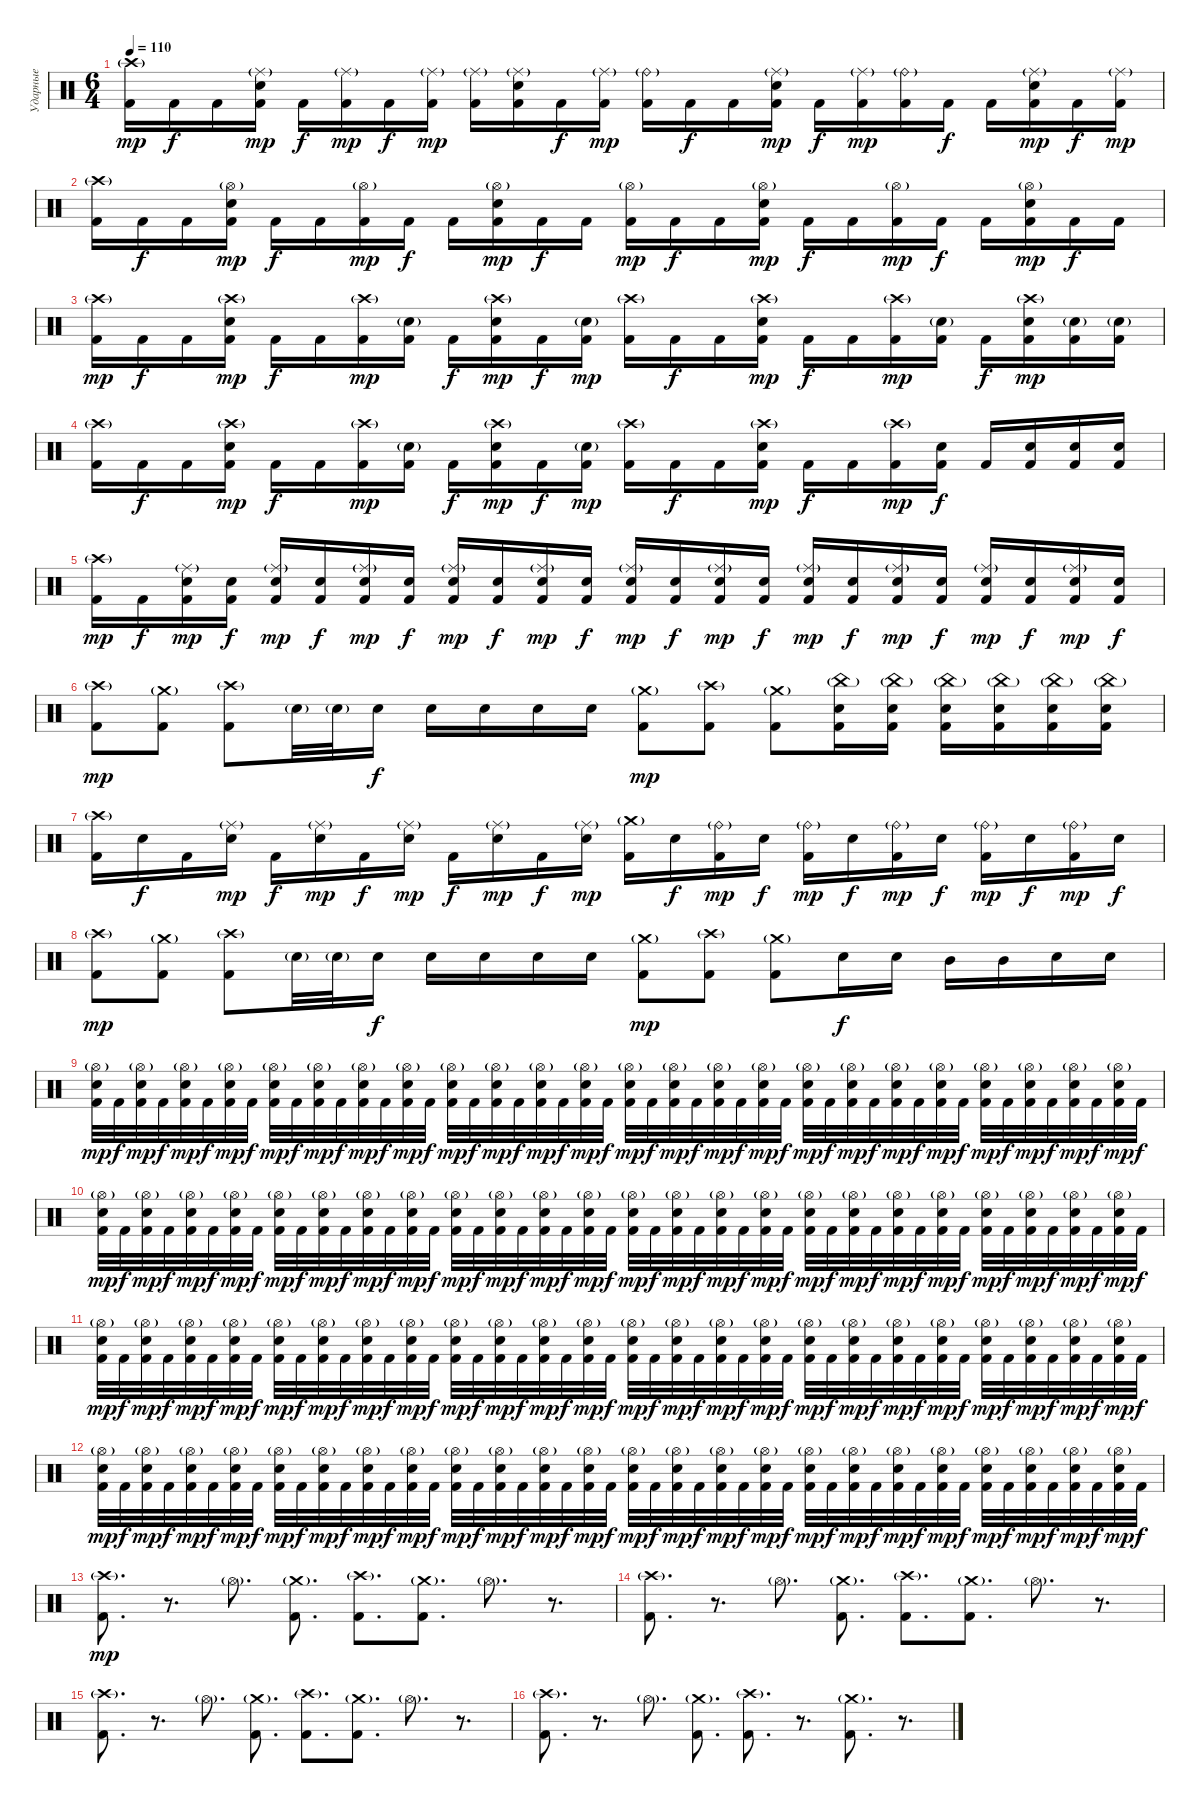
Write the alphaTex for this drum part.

\track ("Ударные" "Ударные") {instrument percussion}
\staff {score}
\articulation defaults
\ts (6 4)
\tempo 110
\clef neutral
\ks c
("Crash high (hit)"{g} "Kick (hit) 2").16{dy mp} "Kick (hit) 2".16{dy f} "Kick (hit) 2".16 ("Ride (middle)"{g} "Electric Snare (hit)" "Kick (hit) 2").16{dy mp} "Kick (hit) 2".16{dy f} ("Ride (middle)"{g} "Kick (hit) 2").16{dy mp} "Kick (hit) 2".16{dy f} ("Ride (middle)"{g} "Kick (hit) 2").16{dy mp} ("Ride (middle)"{g} "Kick (hit) 2").16 ("Ride (middle)"{g} "Electric Snare (hit)" "Kick (hit) 2").16 "Kick (hit) 2".16{dy f} ("Ride (middle)"{g} "Kick (hit) 2").16{dy mp} ("Ride (bell)"{g} "Kick (hit) 2").16 "Kick (hit) 2".16{dy f} "Kick (hit) 2".16 ("Ride (middle)"{g} "Electric Snare (hit)" "Kick (hit) 2").16{dy mp} "Kick (hit) 2".16{dy f} ("Ride (middle)"{g} "Kick (hit) 2").16{dy mp} ("Ride (bell)"{g} "Kick (hit) 2").16 "Kick (hit) 2".16{dy f} "Kick (hit) 2".16 ("Ride (middle)"{g} "Electric Snare (hit)" "Kick (hit) 2").16{dy mp} "Kick (hit) 2".16{dy f} ("Ride (middle)"{g} "Kick (hit) 2").16{dy mp} |
("Crash high (hit)"{g} "Kick (hit) 2").16 "Kick (hit) 2".16{dy f} "Kick (hit) 2".16 ("Hi-Hat (open)"{g} "Electric Snare (hit)" "Kick (hit) 2").16{dy mp} "Kick (hit) 2".16{dy f} "Kick (hit) 2".16 ("Hi-Hat (open)"{g} "Kick (hit) 2").16{dy mp} "Kick (hit) 2".16{dy f} "Kick (hit) 2".16 ("Hi-Hat (open)"{g} "Electric Snare (hit)" "Kick (hit) 2").16{dy mp} "Kick (hit) 2".16{dy f} "Kick (hit) 2".16 ("Hi-Hat (open)"{g} "Kick (hit) 2").16{dy mp} "Kick (hit) 2".16{dy f} "Kick (hit) 2".16 ("Hi-Hat (open)"{g} "Electric Snare (hit)" "Kick (hit) 2").16{dy mp} "Kick (hit) 2".16{dy f} "Kick (hit) 2".16 ("Hi-Hat (open)"{g} "Kick (hit) 2").16{dy mp} "Kick (hit) 2".16{dy f} "Kick (hit) 2".16 ("Hi-Hat (open)"{g} "Electric Snare (hit)" "Kick (hit) 2").16{dy mp} "Kick (hit) 2".16{dy f} "Kick (hit) 2".16 |
("Crash high (hit)"{g} "Kick (hit) 2").16{dy mp} "Kick (hit) 2".16{dy f} "Kick (hit) 2".16 ("Crash high (hit)"{g} "Electric Snare (hit)" "Kick (hit) 2").16{dy mp} "Kick (hit) 2".16{dy f} "Kick (hit) 2".16 ("Crash high (hit)"{g} "Kick (hit) 2").16{dy mp} ("Electric Snare (hit)"{g} "Kick (hit) 2").16 "Kick (hit) 2".16{dy f} ("Crash high (hit)"{g} "Electric Snare (hit)" "Kick (hit) 2").16{dy mp} "Kick (hit) 2".16{dy f} ("Electric Snare (hit)"{g} "Kick (hit) 2").16{dy mp} ("Crash high (hit)"{g} "Kick (hit) 2").16 "Kick (hit) 2".16{dy f} "Kick (hit) 2".16 ("Crash high (hit)"{g} "Electric Snare (hit)" "Kick (hit) 2").16{dy mp} "Kick (hit) 2".16{dy f} "Kick (hit) 2".16 ("Crash high (hit)"{g} "Kick (hit) 2").16{dy mp} ("Electric Snare (hit)"{g} "Kick (hit) 2").16 "Kick (hit) 2".16{dy f} ("Crash high (hit)"{g} "Electric Snare (hit)" "Kick (hit) 2").16{dy mp} ("Electric Snare (hit)"{g} "Kick (hit) 2").16 ("Electric Snare (hit)"{g} "Kick (hit) 2").16 |
("Crash high (hit)"{g} "Kick (hit) 2").16 "Kick (hit) 2".16{dy f} "Kick (hit) 2".16 ("Crash high (hit)"{g} "Electric Snare (hit)" "Kick (hit) 2").16{dy mp} "Kick (hit) 2".16{dy f} "Kick (hit) 2".16 ("Crash high (hit)"{g} "Kick (hit) 2").16{dy mp} ("Electric Snare (hit)"{g} "Kick (hit) 2").16 "Kick (hit) 2".16{dy f} ("Crash high (hit)"{g} "Electric Snare (hit)" "Kick (hit) 2").16{dy mp} "Kick (hit) 2".16{dy f} ("Electric Snare (hit)"{g} "Kick (hit) 2").16{dy mp} ("Crash high (hit)"{g} "Kick (hit) 2").16 "Kick (hit) 2".16{dy f} "Kick (hit) 2".16 ("Crash high (hit)"{g} "Electric Snare (hit)" "Kick (hit) 2").16{dy mp} "Kick (hit) 2".16{dy f} "Kick (hit) 2".16 ("Crash high (hit)"{g} "Kick (hit) 2").16{dy mp} ("Electric Snare (hit)" "Kick (hit) 2").16{dy f} "Kick (hit) 2".16 ("Electric Snare (hit)" "Kick (hit) 2").16 ("Electric Snare (hit)" "Kick (hit) 2").16 ("Electric Snare (hit)" "Kick (hit) 2").16 |
("Crash high (hit)"{g} "Kick (hit) 2").16{dy mp} "Kick (hit) 2".16{dy f} ("Ride (middle)"{g} "Electric Snare (hit)" "Kick (hit) 2").16{dy mp} ("Electric Snare (hit)" "Kick (hit) 2").16{dy f} ("Ride (middle)"{g} "Electric Snare (hit)" "Kick (hit) 2").16{dy mp} ("Electric Snare (hit)" "Kick (hit) 2").16{dy f} ("Ride (middle)"{g} "Electric Snare (hit)" "Kick (hit) 2").16{dy mp} ("Electric Snare (hit)" "Kick (hit) 2").16{dy f} ("Ride (middle)"{g} "Electric Snare (hit)" "Kick (hit) 2").16{dy mp} ("Electric Snare (hit)" "Kick (hit) 2").16{dy f} ("Ride (middle)"{g} "Electric Snare (hit)" "Kick (hit) 2").16{dy mp} ("Electric Snare (hit)" "Kick (hit) 2").16{dy f} ("Ride (middle)"{g} "Electric Snare (hit)" "Kick (hit) 2").16{dy mp} ("Electric Snare (hit)" "Kick (hit) 2").16{dy f} ("Ride (middle)"{g} "Electric Snare (hit)" "Kick (hit) 2").16{dy mp} ("Electric Snare (hit)" "Kick (hit) 2").16{dy f} ("Ride (middle)"{g} "Electric Snare (hit)" "Kick (hit) 2").16{dy mp} ("Electric Snare (hit)" "Kick (hit) 2").16{dy f} ("Ride (middle)"{g} "Electric Snare (hit)" "Kick (hit) 2").16{dy mp} ("Electric Snare (hit)" "Kick (hit) 2").16{dy f} ("Ride (middle)"{g} "Electric Snare (hit)" "Kick (hit) 2").16{dy mp} ("Electric Snare (hit)" "Kick (hit) 2").16{dy f} ("Ride (middle)"{g} "Electric Snare (hit)" "Kick (hit) 2").16{dy mp} ("Electric Snare (hit)" "Kick (hit) 2").16{dy f} |
("Crash high (hit)"{g} "Kick (hit) 2").8{dy mp} ("Crash medium (hit)"{g} "Kick (hit) 2").8 ("Crash high (hit)"{g} "Kick (hit) 2").8 "Electric Snare (hit)"{g}.32 "Electric Snare (hit)"{g}.32 "Electric Snare (hit)".16{dy f} "Electric Snare (hit)".16 "Electric Snare (hit)".16 "Electric Snare (hit)".16 "Electric Snare (hit)".16 ("Crash medium (hit)"{g} "Kick (hit) 2").8{dy mp} ("Crash high (hit)"{g} "Kick (hit) 2").8 ("Crash medium (hit)"{g} "Kick (hit) 2").8 ("China (hit)"{g} "Electric Snare (hit)" "Kick (hit) 2").16 ("China (hit)"{g} "Electric Snare (hit)" "Kick (hit) 2").16 ("China (hit)"{g} "Electric Snare (hit)" "Kick (hit) 2").16 ("China (hit)"{g} "Electric Snare (hit)" "Kick (hit) 2").16 ("China (hit)"{g} "Electric Snare (hit)" "Kick (hit) 2").16 ("China (hit)"{g} "Electric Snare (hit)" "Kick (hit) 2").16 |
("Crash high (hit)"{g} "Kick (hit) 2").16 "Electric Snare (hit)".16{dy f} "Kick (hit) 2".16 ("Ride (middle)"{g} "Electric Snare (hit)").16{dy mp} "Kick (hit) 2".16{dy f} ("Ride (middle)"{g} "Electric Snare (hit)").16{dy mp} "Kick (hit) 2".16{dy f} ("Ride (middle)"{g} "Electric Snare (hit)").16{dy mp} "Kick (hit) 2".16{dy f} ("Ride (middle)"{g} "Electric Snare (hit)").16{dy mp} "Kick (hit) 2".16{dy f} ("Ride (middle)"{g} "Electric Snare (hit)").16{dy mp} ("Crash medium (hit)"{g} "Kick (hit) 2").16 "Electric Snare (hit)".16{dy f} ("Ride (bell)"{g} "Kick (hit) 2").16{dy mp} "Electric Snare (hit)".16{dy f} ("Ride (bell)"{g} "Kick (hit) 2").16{dy mp} "Electric Snare (hit)".16{dy f} ("Ride (bell)"{g} "Kick (hit) 2").16{dy mp} "Electric Snare (hit)".16{dy f} ("Ride (bell)"{g} "Kick (hit) 2").16{dy mp} "Electric Snare (hit)".16{dy f} ("Ride (bell)"{g} "Kick (hit) 2").16{dy mp} "Electric Snare (hit)".16{dy f} |
("Crash high (hit)"{g} "Kick (hit) 2").8{dy mp} ("Crash medium (hit)"{g} "Kick (hit) 2").8 ("Crash high (hit)"{g} "Kick (hit) 2").8 "Electric Snare (hit)"{g}.32 "Electric Snare (hit)"{g}.32 "Electric Snare (hit)".16{dy f} "Electric Snare (hit)".16 "Electric Snare (hit)".16 "Electric Snare (hit)".16 "Electric Snare (hit)".16 ("Crash medium (hit)"{g} "Kick (hit) 2").8{dy mp} ("Crash high (hit)"{g} "Kick (hit) 2").8 ("Crash medium (hit)"{g} "Kick (hit) 2").8 "Electric Snare (hit)".16{dy f} "Electric Snare (hit)".16 "Mid Tom (hit)".16 "Mid Tom (hit)".16 "Electric Snare (hit)".16 "Electric Snare (hit)".16 |
("Hi-Hat (open)"{g} "Electric Snare (hit)" "Kick (hit) 2").32{dy mp} "Kick (hit) 2".32{dy f} ("Hi-Hat (open)"{g} "Electric Snare (hit)" "Kick (hit) 2").32{dy mp} "Kick (hit) 2".32{dy f} ("Hi-Hat (open)"{g} "Electric Snare (hit)" "Kick (hit) 2").32{dy mp} "Kick (hit) 2".32{dy f} ("Hi-Hat (open)"{g} "Electric Snare (hit)" "Kick (hit) 2").32{dy mp} "Kick (hit) 2".32{dy f} ("Hi-Hat (open)"{g} "Electric Snare (hit)" "Kick (hit) 2").32{dy mp} "Kick (hit) 2".32{dy f} ("Hi-Hat (open)"{g} "Electric Snare (hit)" "Kick (hit) 2").32{dy mp} "Kick (hit) 2".32{dy f} ("Hi-Hat (open)"{g} "Electric Snare (hit)" "Kick (hit) 2").32{dy mp} "Kick (hit) 2".32{dy f} ("Hi-Hat (open)"{g} "Electric Snare (hit)" "Kick (hit) 2").32{dy mp} "Kick (hit) 2".32{dy f} ("Hi-Hat (open)"{g} "Electric Snare (hit)" "Kick (hit) 2").32{dy mp} "Kick (hit) 2".32{dy f} ("Hi-Hat (open)"{g} "Electric Snare (hit)" "Kick (hit) 2").32{dy mp} "Kick (hit) 2".32{dy f} ("Hi-Hat (open)"{g} "Electric Snare (hit)" "Kick (hit) 2").32{dy mp} "Kick (hit) 2".32{dy f} ("Hi-Hat (open)"{g} "Electric Snare (hit)" "Kick (hit) 2").32{dy mp} "Kick (hit) 2".32{dy f} ("Hi-Hat (open)"{g} "Electric Snare (hit)" "Kick (hit) 2").32{dy mp} "Kick (hit) 2".32{dy f} ("Hi-Hat (open)"{g} "Electric Snare (hit)" "Kick (hit) 2").32{dy mp} "Kick (hit) 2".32{dy f} ("Hi-Hat (open)"{g} "Electric Snare (hit)" "Kick (hit) 2").32{dy mp} "Kick (hit) 2".32{dy f} ("Hi-Hat (open)"{g} "Electric Snare (hit)" "Kick (hit) 2").32{dy mp} "Kick (hit) 2".32{dy f} ("Hi-Hat (open)"{g} "Electric Snare (hit)" "Kick (hit) 2").32{dy mp} "Kick (hit) 2".32{dy f} ("Hi-Hat (open)"{g} "Electric Snare (hit)" "Kick (hit) 2").32{dy mp} "Kick (hit) 2".32{dy f} ("Hi-Hat (open)"{g} "Electric Snare (hit)" "Kick (hit) 2").32{dy mp} "Kick (hit) 2".32{dy f} ("Hi-Hat (open)"{g} "Electric Snare (hit)" "Kick (hit) 2").32{dy mp} "Kick (hit) 2".32{dy f} ("Hi-Hat (open)"{g} "Electric Snare (hit)" "Kick (hit) 2").32{dy mp} "Kick (hit) 2".32{dy f} ("Hi-Hat (open)"{g} "Electric Snare (hit)" "Kick (hit) 2").32{dy mp} "Kick (hit) 2".32{dy f} ("Hi-Hat (open)"{g} "Electric Snare (hit)" "Kick (hit) 2").32{dy mp} "Kick (hit) 2".32{dy f} ("Hi-Hat (open)"{g} "Electric Snare (hit)" "Kick (hit) 2").32{dy mp} "Kick (hit) 2".32{dy f} |
("Hi-Hat (open)"{g} "Electric Snare (hit)" "Kick (hit) 2").32{dy mp} "Kick (hit) 2".32{dy f} ("Hi-Hat (open)"{g} "Electric Snare (hit)" "Kick (hit) 2").32{dy mp} "Kick (hit) 2".32{dy f} ("Hi-Hat (open)"{g} "Electric Snare (hit)" "Kick (hit) 2").32{dy mp} "Kick (hit) 2".32{dy f} ("Hi-Hat (open)"{g} "Electric Snare (hit)" "Kick (hit) 2").32{dy mp} "Kick (hit) 2".32{dy f} ("Hi-Hat (open)"{g} "Electric Snare (hit)" "Kick (hit) 2").32{dy mp} "Kick (hit) 2".32{dy f} ("Hi-Hat (open)"{g} "Electric Snare (hit)" "Kick (hit) 2").32{dy mp} "Kick (hit) 2".32{dy f} ("Hi-Hat (open)"{g} "Electric Snare (hit)" "Kick (hit) 2").32{dy mp} "Kick (hit) 2".32{dy f} ("Hi-Hat (open)"{g} "Electric Snare (hit)" "Kick (hit) 2").32{dy mp} "Kick (hit) 2".32{dy f} ("Hi-Hat (open)"{g} "Electric Snare (hit)" "Kick (hit) 2").32{dy mp} "Kick (hit) 2".32{dy f} ("Hi-Hat (open)"{g} "Electric Snare (hit)" "Kick (hit) 2").32{dy mp} "Kick (hit) 2".32{dy f} ("Hi-Hat (open)"{g} "Electric Snare (hit)" "Kick (hit) 2").32{dy mp} "Kick (hit) 2".32{dy f} ("Hi-Hat (open)"{g} "Electric Snare (hit)" "Kick (hit) 2").32{dy mp} "Kick (hit) 2".32{dy f} ("Hi-Hat (open)"{g} "Electric Snare (hit)" "Kick (hit) 2").32{dy mp} "Kick (hit) 2".32{dy f} ("Hi-Hat (open)"{g} "Electric Snare (hit)" "Kick (hit) 2").32{dy mp} "Kick (hit) 2".32{dy f} ("Hi-Hat (open)"{g} "Electric Snare (hit)" "Kick (hit) 2").32{dy mp} "Kick (hit) 2".32{dy f} ("Hi-Hat (open)"{g} "Electric Snare (hit)" "Kick (hit) 2").32{dy mp} "Kick (hit) 2".32{dy f} ("Hi-Hat (open)"{g} "Electric Snare (hit)" "Kick (hit) 2").32{dy mp} "Kick (hit) 2".32{dy f} ("Hi-Hat (open)"{g} "Electric Snare (hit)" "Kick (hit) 2").32{dy mp} "Kick (hit) 2".32{dy f} ("Hi-Hat (open)"{g} "Electric Snare (hit)" "Kick (hit) 2").32{dy mp} "Kick (hit) 2".32{dy f} ("Hi-Hat (open)"{g} "Electric Snare (hit)" "Kick (hit) 2").32{dy mp} "Kick (hit) 2".32{dy f} ("Hi-Hat (open)"{g} "Electric Snare (hit)" "Kick (hit) 2").32{dy mp} "Kick (hit) 2".32{dy f} ("Hi-Hat (open)"{g} "Electric Snare (hit)" "Kick (hit) 2").32{dy mp} "Kick (hit) 2".32{dy f} ("Hi-Hat (open)"{g} "Electric Snare (hit)" "Kick (hit) 2").32{dy mp} "Kick (hit) 2".32{dy f} ("Hi-Hat (open)"{g} "Electric Snare (hit)" "Kick (hit) 2").32{dy mp} "Kick (hit) 2".32{dy f} |
("Hi-Hat (open)"{g} "Electric Snare (hit)" "Kick (hit) 2").32{dy mp} "Kick (hit) 2".32{dy f} ("Hi-Hat (open)"{g} "Electric Snare (hit)" "Kick (hit) 2").32{dy mp} "Kick (hit) 2".32{dy f} ("Hi-Hat (open)"{g} "Electric Snare (hit)" "Kick (hit) 2").32{dy mp} "Kick (hit) 2".32{dy f} ("Hi-Hat (open)"{g} "Electric Snare (hit)" "Kick (hit) 2").32{dy mp} "Kick (hit) 2".32{dy f} ("Hi-Hat (open)"{g} "Electric Snare (hit)" "Kick (hit) 2").32{dy mp} "Kick (hit) 2".32{dy f} ("Hi-Hat (open)"{g} "Electric Snare (hit)" "Kick (hit) 2").32{dy mp} "Kick (hit) 2".32{dy f} ("Hi-Hat (open)"{g} "Electric Snare (hit)" "Kick (hit) 2").32{dy mp} "Kick (hit) 2".32{dy f} ("Hi-Hat (open)"{g} "Electric Snare (hit)" "Kick (hit) 2").32{dy mp} "Kick (hit) 2".32{dy f} ("Hi-Hat (open)"{g} "Electric Snare (hit)" "Kick (hit) 2").32{dy mp} "Kick (hit) 2".32{dy f} ("Hi-Hat (open)"{g} "Electric Snare (hit)" "Kick (hit) 2").32{dy mp} "Kick (hit) 2".32{dy f} ("Hi-Hat (open)"{g} "Electric Snare (hit)" "Kick (hit) 2").32{dy mp} "Kick (hit) 2".32{dy f} ("Hi-Hat (open)"{g} "Electric Snare (hit)" "Kick (hit) 2").32{dy mp} "Kick (hit) 2".32{dy f} ("Hi-Hat (open)"{g} "Electric Snare (hit)" "Kick (hit) 2").32{dy mp} "Kick (hit) 2".32{dy f} ("Hi-Hat (open)"{g} "Electric Snare (hit)" "Kick (hit) 2").32{dy mp} "Kick (hit) 2".32{dy f} ("Hi-Hat (open)"{g} "Electric Snare (hit)" "Kick (hit) 2").32{dy mp} "Kick (hit) 2".32{dy f} ("Hi-Hat (open)"{g} "Electric Snare (hit)" "Kick (hit) 2").32{dy mp} "Kick (hit) 2".32{dy f} ("Hi-Hat (open)"{g} "Electric Snare (hit)" "Kick (hit) 2").32{dy mp} "Kick (hit) 2".32{dy f} ("Hi-Hat (open)"{g} "Electric Snare (hit)" "Kick (hit) 2").32{dy mp} "Kick (hit) 2".32{dy f} ("Hi-Hat (open)"{g} "Electric Snare (hit)" "Kick (hit) 2").32{dy mp} "Kick (hit) 2".32{dy f} ("Hi-Hat (open)"{g} "Electric Snare (hit)" "Kick (hit) 2").32{dy mp} "Kick (hit) 2".32{dy f} ("Hi-Hat (open)"{g} "Electric Snare (hit)" "Kick (hit) 2").32{dy mp} "Kick (hit) 2".32{dy f} ("Hi-Hat (open)"{g} "Electric Snare (hit)" "Kick (hit) 2").32{dy mp} "Kick (hit) 2".32{dy f} ("Hi-Hat (open)"{g} "Electric Snare (hit)" "Kick (hit) 2").32{dy mp} "Kick (hit) 2".32{dy f} ("Hi-Hat (open)"{g} "Electric Snare (hit)" "Kick (hit) 2").32{dy mp} "Kick (hit) 2".32{dy f} |
("Hi-Hat (open)"{g} "Electric Snare (hit)" "Kick (hit) 2").32{dy mp} "Kick (hit) 2".32{dy f} ("Hi-Hat (open)"{g} "Electric Snare (hit)" "Kick (hit) 2").32{dy mp} "Kick (hit) 2".32{dy f} ("Hi-Hat (open)"{g} "Electric Snare (hit)" "Kick (hit) 2").32{dy mp} "Kick (hit) 2".32{dy f} ("Hi-Hat (open)"{g} "Electric Snare (hit)" "Kick (hit) 2").32{dy mp} "Kick (hit) 2".32{dy f} ("Hi-Hat (open)"{g} "Electric Snare (hit)" "Kick (hit) 2").32{dy mp} "Kick (hit) 2".32{dy f} ("Hi-Hat (open)"{g} "Electric Snare (hit)" "Kick (hit) 2").32{dy mp} "Kick (hit) 2".32{dy f} ("Hi-Hat (open)"{g} "Electric Snare (hit)" "Kick (hit) 2").32{dy mp} "Kick (hit) 2".32{dy f} ("Hi-Hat (open)"{g} "Electric Snare (hit)" "Kick (hit) 2").32{dy mp} "Kick (hit) 2".32{dy f} ("Hi-Hat (open)"{g} "Electric Snare (hit)" "Kick (hit) 2").32{dy mp} "Kick (hit) 2".32{dy f} ("Hi-Hat (open)"{g} "Electric Snare (hit)" "Kick (hit) 2").32{dy mp} "Kick (hit) 2".32{dy f} ("Hi-Hat (open)"{g} "Electric Snare (hit)" "Kick (hit) 2").32{dy mp} "Kick (hit) 2".32{dy f} ("Hi-Hat (open)"{g} "Electric Snare (hit)" "Kick (hit) 2").32{dy mp} "Kick (hit) 2".32{dy f} ("Hi-Hat (open)"{g} "Electric Snare (hit)" "Kick (hit) 2").32{dy mp} "Kick (hit) 2".32{dy f} ("Hi-Hat (open)"{g} "Electric Snare (hit)" "Kick (hit) 2").32{dy mp} "Kick (hit) 2".32{dy f} ("Hi-Hat (open)"{g} "Electric Snare (hit)" "Kick (hit) 2").32{dy mp} "Kick (hit) 2".32{dy f} ("Hi-Hat (open)"{g} "Electric Snare (hit)" "Kick (hit) 2").32{dy mp} "Kick (hit) 2".32{dy f} ("Hi-Hat (open)"{g} "Electric Snare (hit)" "Kick (hit) 2").32{dy mp} "Kick (hit) 2".32{dy f} ("Hi-Hat (open)"{g} "Electric Snare (hit)" "Kick (hit) 2").32{dy mp} "Kick (hit) 2".32{dy f} ("Hi-Hat (open)"{g} "Electric Snare (hit)" "Kick (hit) 2").32{dy mp} "Kick (hit) 2".32{dy f} ("Hi-Hat (open)"{g} "Electric Snare (hit)" "Kick (hit) 2").32{dy mp} "Kick (hit) 2".32{dy f} ("Hi-Hat (open)"{g} "Electric Snare (hit)" "Kick (hit) 2").32{dy mp} "Kick (hit) 2".32{dy f} ("Hi-Hat (open)"{g} "Electric Snare (hit)" "Kick (hit) 2").32{dy mp} "Kick (hit) 2".32{dy f} ("Hi-Hat (open)"{g} "Electric Snare (hit)" "Kick (hit) 2").32{dy mp} "Kick (hit) 2".32{dy f} ("Hi-Hat (open)"{g} "Electric Snare (hit)" "Kick (hit) 2").32{dy mp} "Kick (hit) 2".32{dy f} |
("Crash high (hit)"{g} "Kick (hit) 2").8{d dy mp} r.8{d} "Hi-Hat (open)"{g}.8{d} ("Crash medium (hit)"{g} "Kick (hit) 2").8{d} ("Crash high (hit)"{g} "Kick (hit) 2").8{d} ("Crash medium (hit)"{g} "Kick (hit) 2").8{d} "Hi-Hat (open)"{g}.8{d} r.8{d} |
("Crash high (hit)"{g} "Kick (hit) 2").8{d} r.8{d} "Hi-Hat (open)"{g}.8{d} ("Crash medium (hit)"{g} "Kick (hit) 2").8{d} ("Crash high (hit)"{g} "Kick (hit) 2").8{d} ("Crash medium (hit)"{g} "Kick (hit) 2").8{d} "Hi-Hat (open)"{g}.8{d} r.8{d} |
("Crash high (hit)"{g} "Kick (hit) 2").8{d} r.8{d} "Hi-Hat (open)"{g}.8{d} ("Crash medium (hit)"{g} "Kick (hit) 2").8{d} ("Crash high (hit)"{g} "Kick (hit) 2").8{d} ("Crash medium (hit)"{g} "Kick (hit) 2").8{d} "Hi-Hat (open)"{g}.8{d} r.8{d} |
("Crash high (hit)"{g} "Kick (hit) 2").8{d} r.8{d} "Hi-Hat (open)"{g}.8{d} ("Crash medium (hit)"{g} "Kick (hit) 2").8{d} ("Crash high (hit)"{g} "Kick (hit) 2").8{d} r.8{d} ("Crash medium (hit)"{g} "Kick (hit) 2").8{d} r.8{d}
